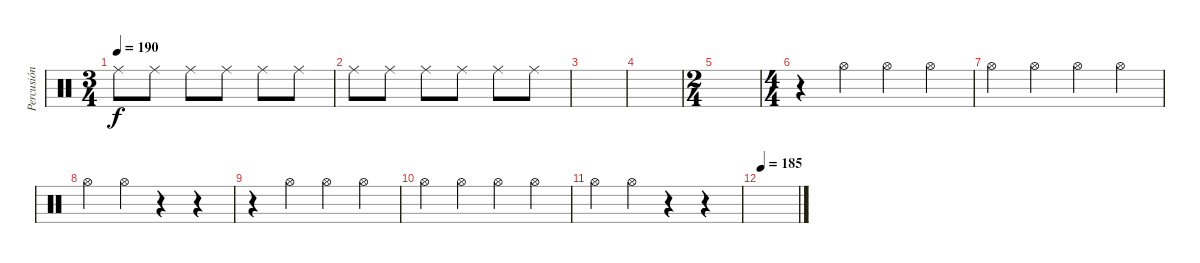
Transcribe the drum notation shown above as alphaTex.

\track ("Percusión" "Percusión") {instrument percussion}
\staff {score}
\articulation defaults
\ts (3 4)
\tempo 190
\clef neutral
\ks c "Ride (middle)".8{dy f} "Ride (middle)".8 "Ride (middle)".8 "Ride (middle)".8 "Ride (middle)".8 "Ride (middle)".8
|
"Ride (middle)".8 "Ride (middle)".8 "Ride (middle)".8 "Ride (middle)".8 "Ride (middle)".8 "Ride (middle)".8 |
|
|
\ts (2 4)
|
\ts (4 4)
r.4 "Hi-Hat (open)".4 "Hi-Hat (open)".4 "Hi-Hat (open)".4 |
"Hi-Hat (open)".4 "Hi-Hat (open)".4 "Hi-Hat (open)".4 "Hi-Hat (open)".4 |
"Hi-Hat (open)".4 "Hi-Hat (open)".4 r.4 r.4 |
r.4 "Hi-Hat (open)".4 "Hi-Hat (open)".4 "Hi-Hat (open)".4 |
"Hi-Hat (open)".4 "Hi-Hat (open)".4 "Hi-Hat (open)".4 "Hi-Hat (open)".4 |
"Hi-Hat (open)".4 "Hi-Hat (open)".4 r.4 r.4 |
\tempo 185
